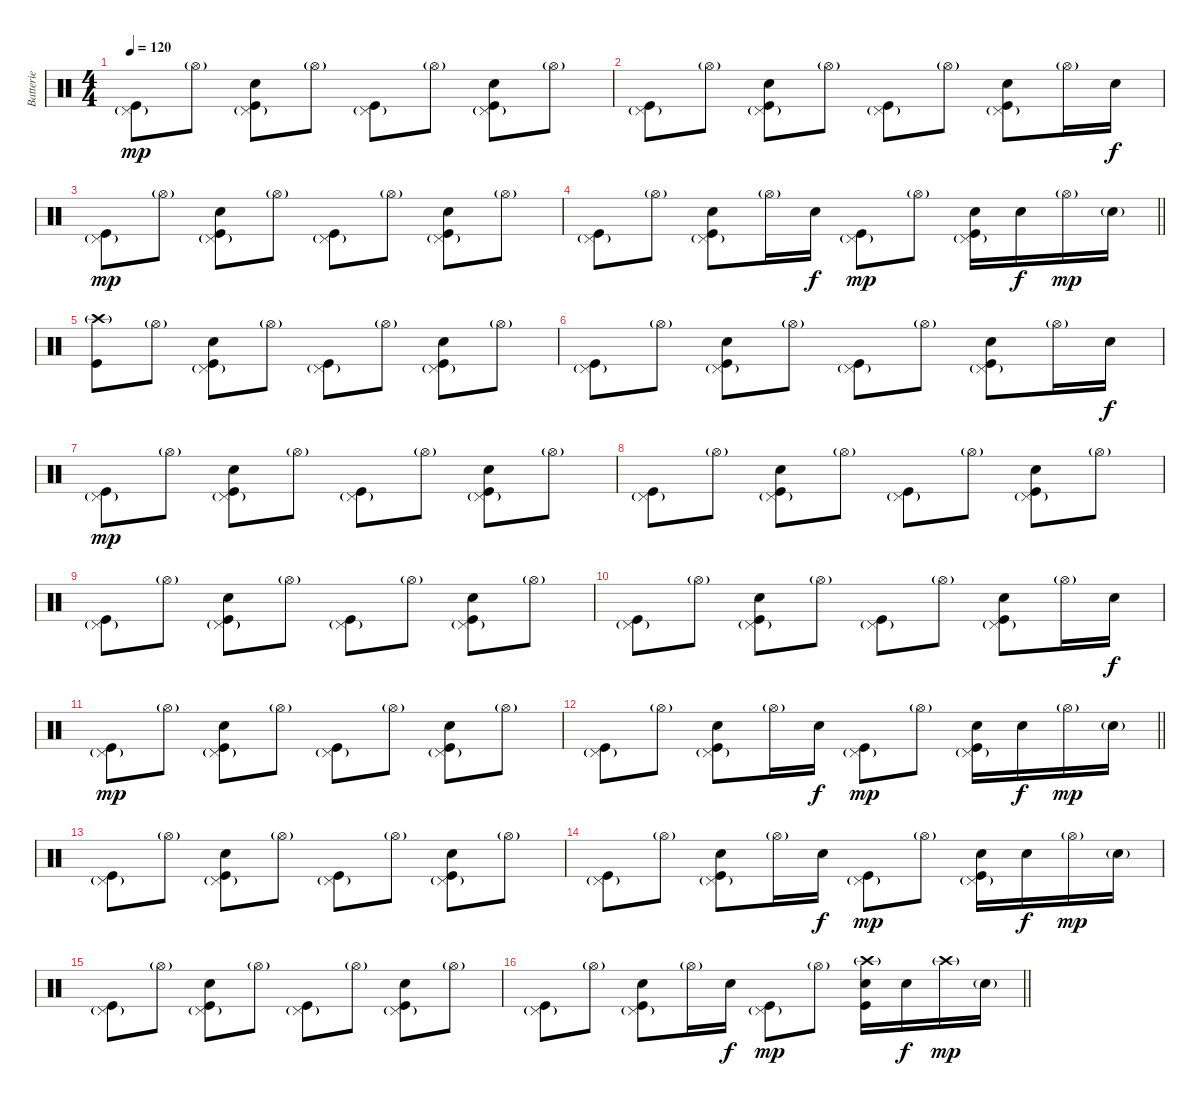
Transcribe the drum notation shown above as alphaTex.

\track ("Batterie" "Batterie") {instrument percussion}
\staff {score}
\articulation defaults
\ts (4 4)
\tempo 120
\clef neutral
\ks c
("Pedal Hi-Hat (hit)"{g} "Kick (hit)").8{dy mp} "Hi-Hat (open)"{g}.8 ("Pedal Hi-Hat (hit)"{g} "Electric Snare (hit)" "Kick (hit)").8 "Hi-Hat (open)"{g}.8 ("Pedal Hi-Hat (hit)"{g} "Kick (hit)").8 "Hi-Hat (open)"{g}.8 ("Pedal Hi-Hat (hit)"{g} "Electric Snare (hit)" "Kick (hit)").8 "Hi-Hat (open)"{g}.8 |
("Pedal Hi-Hat (hit)"{g} "Kick (hit)").8 "Hi-Hat (open)"{g}.8 ("Pedal Hi-Hat (hit)"{g} "Electric Snare (hit)" "Kick (hit)").8 "Hi-Hat (open)"{g}.8 ("Pedal Hi-Hat (hit)"{g} "Kick (hit)").8 "Hi-Hat (open)"{g}.8 ("Pedal Hi-Hat (hit)"{g} "Electric Snare (hit)" "Kick (hit)").8 "Hi-Hat (open)"{g}.16 "Electric Snare (hit)".16{dy f} |
("Pedal Hi-Hat (hit)"{g} "Kick (hit)").8{dy mp} "Hi-Hat (open)"{g}.8 ("Pedal Hi-Hat (hit)"{g} "Electric Snare (hit)" "Kick (hit)").8 "Hi-Hat (open)"{g}.8 ("Pedal Hi-Hat (hit)"{g} "Kick (hit)").8 "Hi-Hat (open)"{g}.8 ("Pedal Hi-Hat (hit)"{g} "Electric Snare (hit)" "Kick (hit)").8 "Hi-Hat (open)"{g}.8 |
\barLineRight lightlight
("Pedal Hi-Hat (hit)"{g} "Kick (hit)").8 "Hi-Hat (open)"{g}.8 ("Pedal Hi-Hat (hit)"{g} "Electric Snare (hit)" "Kick (hit)").8 "Hi-Hat (open)"{g}.16 "Electric Snare (hit)".16{dy f} ("Pedal Hi-Hat (hit)"{g} "Kick (hit)").8{dy mp} "Hi-Hat (open)"{g}.8 ("Pedal Hi-Hat (hit)"{g} "Electric Snare (hit)" "Kick (hit)").16 "Electric Snare (hit)".16{dy f} "Hi-Hat (open)"{g}.16{dy mp} "Electric Snare (hit)"{g}.16 |
("Crash high (hit)"{g} "Kick (hit)").8 "Hi-Hat (open)"{g}.8 ("Pedal Hi-Hat (hit)"{g} "Electric Snare (hit)" "Kick (hit)").8 "Hi-Hat (open)"{g}.8 ("Pedal Hi-Hat (hit)"{g} "Kick (hit)").8 "Hi-Hat (open)"{g}.8 ("Pedal Hi-Hat (hit)"{g} "Electric Snare (hit)" "Kick (hit)").8 "Hi-Hat (open)"{g}.8 |
("Pedal Hi-Hat (hit)"{g} "Kick (hit)").8 "Hi-Hat (open)"{g}.8 ("Pedal Hi-Hat (hit)"{g} "Electric Snare (hit)" "Kick (hit)").8 "Hi-Hat (open)"{g}.8 ("Pedal Hi-Hat (hit)"{g} "Kick (hit)").8 "Hi-Hat (open)"{g}.8 ("Pedal Hi-Hat (hit)"{g} "Electric Snare (hit)" "Kick (hit)").8 "Hi-Hat (open)"{g}.16 "Electric Snare (hit)".16{dy f} |
("Pedal Hi-Hat (hit)"{g} "Kick (hit)").8{dy mp} "Hi-Hat (open)"{g}.8 ("Pedal Hi-Hat (hit)"{g} "Electric Snare (hit)" "Kick (hit)").8 "Hi-Hat (open)"{g}.8 ("Pedal Hi-Hat (hit)"{g} "Kick (hit)").8 "Hi-Hat (open)"{g}.8 ("Pedal Hi-Hat (hit)"{g} "Electric Snare (hit)" "Kick (hit)").8 "Hi-Hat (open)"{g}.8 |
("Pedal Hi-Hat (hit)"{g} "Kick (hit)").8 "Hi-Hat (open)"{g}.8 ("Pedal Hi-Hat (hit)"{g} "Electric Snare (hit)" "Kick (hit)").8 "Hi-Hat (open)"{g}.8 ("Pedal Hi-Hat (hit)"{g} "Kick (hit)").8 "Hi-Hat (open)"{g}.8 ("Pedal Hi-Hat (hit)"{g} "Electric Snare (hit)" "Kick (hit)").8 "Hi-Hat (open)"{g}.8 |
("Pedal Hi-Hat (hit)"{g} "Kick (hit)").8 "Hi-Hat (open)"{g}.8 ("Pedal Hi-Hat (hit)"{g} "Electric Snare (hit)" "Kick (hit)").8 "Hi-Hat (open)"{g}.8 ("Pedal Hi-Hat (hit)"{g} "Kick (hit)").8 "Hi-Hat (open)"{g}.8 ("Pedal Hi-Hat (hit)"{g} "Electric Snare (hit)" "Kick (hit)").8 "Hi-Hat (open)"{g}.8 |
("Pedal Hi-Hat (hit)"{g} "Kick (hit)").8 "Hi-Hat (open)"{g}.8 ("Pedal Hi-Hat (hit)"{g} "Electric Snare (hit)" "Kick (hit)").8 "Hi-Hat (open)"{g}.8 ("Pedal Hi-Hat (hit)"{g} "Kick (hit)").8 "Hi-Hat (open)"{g}.8 ("Pedal Hi-Hat (hit)"{g} "Electric Snare (hit)" "Kick (hit)").8 "Hi-Hat (open)"{g}.16 "Electric Snare (hit)".16{dy f} |
("Pedal Hi-Hat (hit)"{g} "Kick (hit)").8{dy mp} "Hi-Hat (open)"{g}.8 ("Pedal Hi-Hat (hit)"{g} "Electric Snare (hit)" "Kick (hit)").8 "Hi-Hat (open)"{g}.8 ("Pedal Hi-Hat (hit)"{g} "Kick (hit)").8 "Hi-Hat (open)"{g}.8 ("Pedal Hi-Hat (hit)"{g} "Electric Snare (hit)" "Kick (hit)").8 "Hi-Hat (open)"{g}.8 |
\barLineRight lightlight
("Pedal Hi-Hat (hit)"{g} "Kick (hit)").8 "Hi-Hat (open)"{g}.8 ("Pedal Hi-Hat (hit)"{g} "Electric Snare (hit)" "Kick (hit)").8 "Hi-Hat (open)"{g}.16 "Electric Snare (hit)".16{dy f} ("Pedal Hi-Hat (hit)"{g} "Kick (hit)").8{dy mp} "Hi-Hat (open)"{g}.8 ("Pedal Hi-Hat (hit)"{g} "Electric Snare (hit)" "Kick (hit)").16 "Electric Snare (hit)".16{dy f} "Hi-Hat (open)"{g}.16{dy mp} "Electric Snare (hit)"{g}.16 |
("Pedal Hi-Hat (hit)"{g} "Kick (hit)").8 "Hi-Hat (open)"{g}.8 ("Pedal Hi-Hat (hit)"{g} "Electric Snare (hit)" "Kick (hit)").8 "Hi-Hat (open)"{g}.8 ("Pedal Hi-Hat (hit)"{g} "Kick (hit)").8 "Hi-Hat (open)"{g}.8 ("Pedal Hi-Hat (hit)"{g} "Electric Snare (hit)" "Kick (hit)").8 "Hi-Hat (open)"{g}.8 |
("Pedal Hi-Hat (hit)"{g} "Kick (hit)").8 "Hi-Hat (open)"{g}.8 ("Pedal Hi-Hat (hit)"{g} "Electric Snare (hit)" "Kick (hit)").8 "Hi-Hat (open)"{g}.16 "Electric Snare (hit)".16{dy f} ("Pedal Hi-Hat (hit)"{g} "Kick (hit)").8{dy mp} "Hi-Hat (open)"{g}.8 ("Pedal Hi-Hat (hit)"{g} "Electric Snare (hit)" "Kick (hit)").16 "Electric Snare (hit)".16{dy f} "Hi-Hat (open)"{g}.16{dy mp} "Electric Snare (hit)"{g}.16 |
("Pedal Hi-Hat (hit)"{g} "Kick (hit)").8 "Hi-Hat (open)"{g}.8 ("Pedal Hi-Hat (hit)"{g} "Electric Snare (hit)" "Kick (hit)").8 "Hi-Hat (open)"{g}.8 ("Pedal Hi-Hat (hit)"{g} "Kick (hit)").8 "Hi-Hat (open)"{g}.8 ("Pedal Hi-Hat (hit)"{g} "Electric Snare (hit)" "Kick (hit)").8 "Hi-Hat (open)"{g}.8 |
\barLineRight lightlight
("Pedal Hi-Hat (hit)"{g} "Kick (hit)").8 "Hi-Hat (open)"{g}.8 ("Pedal Hi-Hat (hit)"{g} "Electric Snare (hit)" "Kick (hit)").8 "Hi-Hat (open)"{g}.16 "Electric Snare (hit)".16{dy f} ("Pedal Hi-Hat (hit)"{g} "Kick (hit)").8{dy mp} "Hi-Hat (open)"{g}.8 ("Crash high (hit)"{g} "Electric Snare (hit)" "Kick (hit)").16 "Electric Snare (hit)".16{dy f} "Crash high (hit)"{g}.16{dy mp} "Electric Snare (hit)"{g}.16
